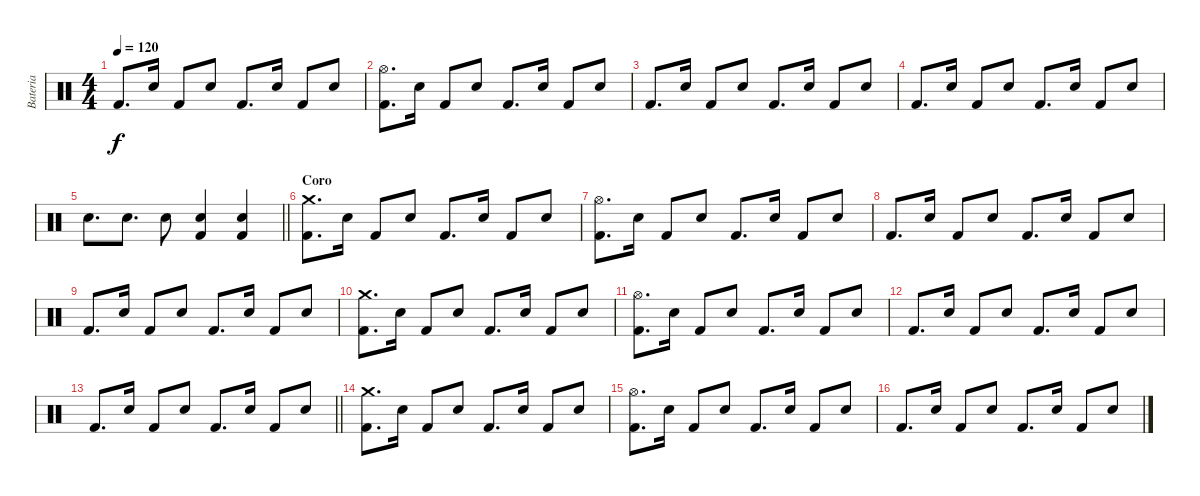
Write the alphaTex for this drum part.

\track ("Bateria" "Bateria") {instrument percussion}
\staff {score}
\articulation defaults
\ts (4 4)
\tempo 120
\clef neutral
\ks c "Kick (hit) 2".8{d dy f} "Snare (hit) 2".16 "Kick (hit) 2".8 "Snare (hit) 2".8 "Kick (hit) 2".8{d} "Snare (hit) 2".16 "Kick (hit) 2".8 "Snare (hit) 2".8
|
("Hi-Hat (open)" "Kick (hit) 2").8{d} "Snare (hit) 2".16 "Kick (hit) 2".8 "Snare (hit) 2".8 "Kick (hit) 2".8{d} "Snare (hit) 2".16 "Kick (hit) 2".8 "Snare (hit) 2".8 |
"Kick (hit) 2".8{d} "Snare (hit) 2".16 "Kick (hit) 2".8 "Snare (hit) 2".8 "Kick (hit) 2".8{d} "Snare (hit) 2".16 "Kick (hit) 2".8 "Snare (hit) 2".8 |
"Kick (hit) 2".8{d} "Snare (hit) 2".16 "Kick (hit) 2".8 "Snare (hit) 2".8 "Kick (hit) 2".8{d} "Snare (hit) 2".16 "Kick (hit) 2".8 "Snare (hit) 2".8 |
\barLineRight lightlight "Snare (hit) 2".8{d} "Snare (hit) 2".8{d} "Snare (hit) 2".8
("Snare (hit) 2" "Kick (hit) 2").4 ("Snare (hit) 2" "Kick (hit) 2").4 |
\section ("" "Coro")
("Crash medium (hit)" "Kick (hit) 2").8{d} "Snare (hit) 2".16 "Kick (hit) 2".8 "Snare (hit) 2".8 "Kick (hit) 2".8{d} "Snare (hit) 2".16 "Kick (hit) 2".8 "Snare (hit) 2".8 |
("Hi-Hat (open)" "Kick (hit) 2").8{d} "Snare (hit) 2".16 "Kick (hit) 2".8 "Snare (hit) 2".8 "Kick (hit) 2".8{d} "Snare (hit) 2".16 "Kick (hit) 2".8 "Snare (hit) 2".8 |
"Kick (hit) 2".8{d} "Snare (hit) 2".16 "Kick (hit) 2".8 "Snare (hit) 2".8 "Kick (hit) 2".8{d} "Snare (hit) 2".16 "Kick (hit) 2".8 "Snare (hit) 2".8 |
"Kick (hit) 2".8{d} "Snare (hit) 2".16 "Kick (hit) 2".8 "Snare (hit) 2".8 "Kick (hit) 2".8{d} "Snare (hit) 2".16 "Kick (hit) 2".8 "Snare (hit) 2".8 |
("Crash medium (hit)" "Kick (hit) 2").8{d} "Snare (hit) 2".16 "Kick (hit) 2".8 "Snare (hit) 2".8 "Kick (hit) 2".8{d} "Snare (hit) 2".16 "Kick (hit) 2".8 "Snare (hit) 2".8 |
("Hi-Hat (open)" "Kick (hit) 2").8{d} "Snare (hit) 2".16 "Kick (hit) 2".8 "Snare (hit) 2".8 "Kick (hit) 2".8{d} "Snare (hit) 2".16 "Kick (hit) 2".8 "Snare (hit) 2".8 |
"Kick (hit) 2".8{d} "Snare (hit) 2".16 "Kick (hit) 2".8 "Snare (hit) 2".8 "Kick (hit) 2".8{d} "Snare (hit) 2".16 "Kick (hit) 2".8 "Snare (hit) 2".8 |
\barLineRight lightlight "Kick (hit) 2".8{d} "Snare (hit) 2".16 "Kick (hit) 2".8 "Snare (hit) 2".8 "Kick (hit) 2".8{d} "Snare (hit) 2".16 "Kick (hit) 2".8 "Snare (hit) 2".8
|
\section ("" "")
("Crash medium (hit)" "Kick (hit) 2").8{d} "Snare (hit) 2".16 "Kick (hit) 2".8 "Snare (hit) 2".8 "Kick (hit) 2".8{d} "Snare (hit) 2".16 "Kick (hit) 2".8 "Snare (hit) 2".8 |
("Hi-Hat (open)" "Kick (hit) 2").8{d} "Snare (hit) 2".16 "Kick (hit) 2".8 "Snare (hit) 2".8 "Kick (hit) 2".8{d} "Snare (hit) 2".16 "Kick (hit) 2".8 "Snare (hit) 2".8 |
"Kick (hit) 2".8{d} "Snare (hit) 2".16 "Kick (hit) 2".8 "Snare (hit) 2".8 "Kick (hit) 2".8{d} "Snare (hit) 2".16 "Kick (hit) 2".8 "Snare (hit) 2".8
